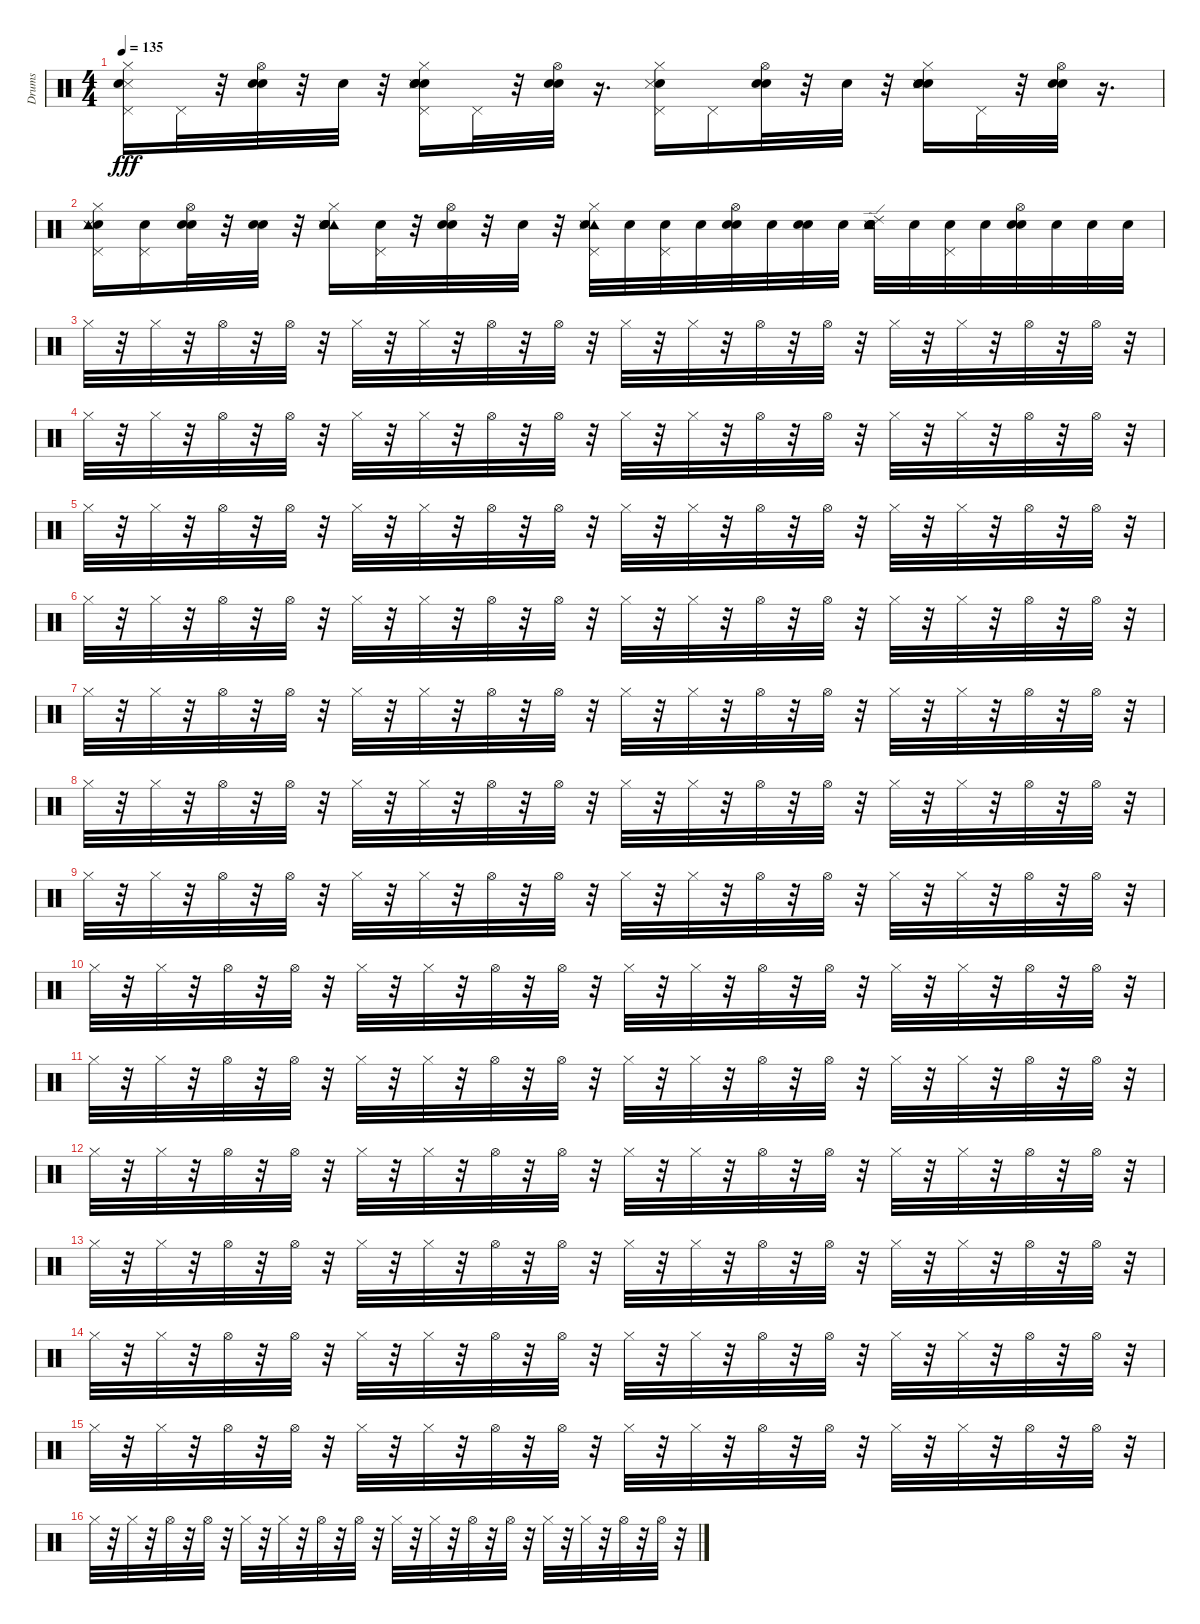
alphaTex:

\track ("Drums" "Drums") {instrument percussion}
\staff {score}
\articulation defaults
\ts (4 4)
\tempo 135
\clef neutral
\ks c
("Metronome (hit)" "Pedal Hi-Hat (hit)" "Hi-Hat (closed)" "Snare (hit) 2").16{dy fff} "Pedal Hi-Hat (hit)".32 r.32 ("Hi-Hat (open)" "Snare (hit)" "Snare (hit) 2").32 r.32 "Snare (hit)".32 r.32 ("Electric Snare (hit)" "Snare (hit) 2" "Metronome (hit)" "Hand Clap (hit)" "Hi-Hat (closed)" "Pedal Hi-Hat (hit)").16 "Pedal Hi-Hat (hit)".32 r.32 ("Snare (hit) 2" "Snare (hit)" "Hi-Hat (open)").32 r.16{d} ("Hi-Hat (closed)" "Pedal Hi-Hat (hit)" "Snare (hit) 2" "Metronome (hit)").16 "Pedal Hi-Hat (hit)".16 ("Hi-Hat (open)" "Snare (hit) 2" "Snare (hit)").32 r.32 "Snare (hit)".32 r.32 ("Snare (hit)" "Electric Snare (hit)" "Hand Clap (hit)" "Hi-Hat (closed)" "Snare (hit) 2" "Metronome (hit)").16 "Pedal Hi-Hat (hit)".32 r.32 ("Snare (hit)" "Hi-Hat (open)" "Snare (hit) 2").32 r.16{d} |
("Snare (hit) 2" "Hi-Hat (closed)" "Tambourine (hit)" "Pedal Hi-Hat (hit)" "Metronome (hit)").16 ("Pedal Hi-Hat (hit)" "Snare (hit) 2").16 ("Hi-Hat (open)" "Snare (hit)" "Snare (hit) 2").32 r.32 ("Snare (hit)" "Snare (hit) 2").32 r.32 ("Tambourine (hit)" "Snare (hit)" "Snare (hit) 2" "Electric Snare (hit)" "Metronome (hit)" "Hi-Hat (closed)").16 ("Snare (hit) 2" "Pedal Hi-Hat (hit)").32 r.32 ("Snare (hit)" "Snare (hit) 2" "Hi-Hat (open)").32 r.32 "Snare (hit) 2".32 r.32 ("Tambourine (hit)" "Metronome (hit)" "Snare (hit) 2" "Hi-Hat (closed)" "Pedal Hi-Hat (hit)").32 "Snare (hit) 2".32 ("Pedal Hi-Hat (hit)" "Snare (hit) 2").32 "Snare (hit) 2".32 ("Hi-Hat (open)" "Snare (hit)" "Snare (hit) 2").32 "Snare (hit) 2".32 ("Snare (hit)" "Snare (hit) 2").32 "Snare (hit) 2".32 ("Ride (edge) 2" "Hand Clap (hit)" "Tambourine (hit)" "Metronome (hit)" "Snare (hit) 2" "Electric Snare (hit)").32 "Snare (hit) 2".32 ("Snare (hit) 2" "Pedal Hi-Hat (hit)").32 "Snare (hit) 2".32 ("Snare (hit)" "Snare (hit) 2" "Hi-Hat (open)").32 "Snare (hit) 2".32 "Snare (hit) 2".32 "Snare (hit) 2".32 |
"Hi-Hat (closed)".32{balance 0} r.32 "Hi-Hat (closed)".32{balance 0} r.32 "Hi-Hat (open)".32{balance 1} r.32 "Hi-Hat (open)".32{balance 1} r.32 "Hi-Hat (closed)".32{balance 2} r.32 "Hi-Hat (closed)".32{balance 2} r.32 "Hi-Hat (open)".32{balance 3} r.32 "Hi-Hat (open)".32{balance 3} r.32 "Hi-Hat (closed)".32{balance 4} r.32 "Hi-Hat (closed)".32{balance 4} r.32 "Hi-Hat (open)".32{balance 5} r.32 "Hi-Hat (open)".32{balance 5} r.32 "Hi-Hat (closed)".32{balance 6} r.32 "Hi-Hat (closed)".32{balance 6} r.32 "Hi-Hat (open)".32{balance 7} r.32 "Hi-Hat (open)".32{balance 7} r.32 |
"Hi-Hat (closed)".32{balance 8} r.32 "Hi-Hat (closed)".32{balance 8} r.32 "Hi-Hat (open)".32{balance 9} r.32 "Hi-Hat (open)".32{balance 9} r.32 "Hi-Hat (closed)".32{balance 10} r.32 "Hi-Hat (closed)".32{balance 10} r.32 "Hi-Hat (open)".32{balance 11} r.32 "Hi-Hat (open)".32{balance 11} r.32 "Hi-Hat (closed)".32{balance 12} r.32 "Hi-Hat (closed)".32{balance 12} r.32 "Hi-Hat (open)".32{balance 13} r.32 "Hi-Hat (open)".32{balance 13} r.32 "Hi-Hat (closed)".32{balance 14} r.32 "Hi-Hat (closed)".32{balance 14} r.32 "Hi-Hat (open)".32{balance 15} r.32 "Hi-Hat (open)".32{balance 15} r.32 |
"Hi-Hat (closed)".32{balance 16} r.32 "Hi-Hat (closed)".32{balance 16} r.32 "Hi-Hat (open)".32{balance 15} r.32 "Hi-Hat (open)".32{balance 14} r.32 "Hi-Hat (closed)".32{balance 14} r.32 "Hi-Hat (closed)".32{balance 14} r.32 "Hi-Hat (open)".32{balance 13} r.32 "Hi-Hat (open)".32{balance 13} r.32 "Hi-Hat (closed)".32{balance 12} r.32 "Hi-Hat (closed)".32{balance 12} r.32 "Hi-Hat (open)".32{balance 11} r.32 "Hi-Hat (open)".32{balance 11} r.32 "Hi-Hat (closed)".32{balance 10} r.32 "Hi-Hat (closed)".32{balance 10} r.32 "Hi-Hat (open)".32{balance 9} r.32 "Hi-Hat (open)".32{balance 9} r.32 |
"Hi-Hat (closed)".32{balance 8} r.32 "Hi-Hat (closed)".32{balance 8} r.32 "Hi-Hat (open)".32{balance 7} r.32 "Hi-Hat (open)".32{balance 7} r.32 "Hi-Hat (closed)".32{balance 6} r.32 "Hi-Hat (closed)".32{balance 6} r.32 "Hi-Hat (open)".32{balance 5} r.32 "Hi-Hat (open)".32{balance 5} r.32 "Hi-Hat (closed)".32{balance 4} r.32 "Hi-Hat (closed)".32{balance 4} r.32 "Hi-Hat (open)".32{balance 3} r.32 "Hi-Hat (open)".32{balance 3} r.32 "Hi-Hat (closed)".32{balance 2} r.32 "Hi-Hat (closed)".32{balance 2} r.32 "Hi-Hat (open)".32{balance 1} r.32 "Hi-Hat (open)".32{balance 1} r.32 |
"Hi-Hat (closed)".32{balance 0} r.32 "Hi-Hat (closed)".32{balance 0} r.32 "Hi-Hat (open)".32{balance 1} r.32 "Hi-Hat (open)".32{balance 1} r.32 "Hi-Hat (closed)".32{balance 2} r.32 "Hi-Hat (closed)".32{balance 2} r.32 "Hi-Hat (open)".32{balance 3} r.32 "Hi-Hat (open)".32{balance 3} r.32 "Hi-Hat (closed)".32{balance 4} r.32 "Hi-Hat (closed)".32{balance 4} r.32 "Hi-Hat (open)".32{balance 5} r.32 "Hi-Hat (open)".32{balance 5} r.32 "Hi-Hat (closed)".32{balance 6} r.32 "Hi-Hat (closed)".32{balance 6} r.32 "Hi-Hat (open)".32{balance 7} r.32 "Hi-Hat (open)".32{balance 7} r.32 |
"Hi-Hat (closed)".32{balance 8} r.32 "Hi-Hat (closed)".32{balance 8} r.32 "Hi-Hat (open)".32{balance 9} r.32 "Hi-Hat (open)".32{balance 9} r.32 "Hi-Hat (closed)".32{balance 10} r.32 "Hi-Hat (closed)".32{balance 10} r.32 "Hi-Hat (open)".32{balance 11} r.32 "Hi-Hat (open)".32{balance 11} r.32 "Hi-Hat (closed)".32{balance 12} r.32 "Hi-Hat (closed)".32{balance 12} r.32 "Hi-Hat (open)".32{balance 13} r.32 "Hi-Hat (open)".32{balance 13} r.32 "Hi-Hat (closed)".32{balance 14} r.32 "Hi-Hat (closed)".32{balance 14} r.32 "Hi-Hat (open)".32{balance 15} r.32 "Hi-Hat (open)".32{balance 15} r.32 |
"Hi-Hat (closed)".32{balance 16} r.32 "Hi-Hat (closed)".32{balance 16} r.32 "Hi-Hat (open)".32{balance 15} r.32 "Hi-Hat (open)".32{balance 14} r.32 "Hi-Hat (closed)".32{balance 14} r.32 "Hi-Hat (closed)".32{balance 14} r.32 "Hi-Hat (open)".32{balance 13} r.32 "Hi-Hat (open)".32{balance 13} r.32 "Hi-Hat (closed)".32{balance 12} r.32 "Hi-Hat (closed)".32{balance 12} r.32 "Hi-Hat (open)".32{balance 11} r.32 "Hi-Hat (open)".32{balance 11} r.32 "Hi-Hat (closed)".32{balance 10} r.32 "Hi-Hat (closed)".32{balance 10} r.32 "Hi-Hat (open)".32{balance 9} r.32 "Hi-Hat (open)".32{balance 9} r.32 |
"Hi-Hat (closed)".32{balance 8} r.32 "Hi-Hat (closed)".32{balance 8} r.32 "Hi-Hat (open)".32{balance 7} r.32 "Hi-Hat (open)".32{balance 7} r.32 "Hi-Hat (closed)".32{balance 6} r.32 "Hi-Hat (closed)".32{balance 6} r.32 "Hi-Hat (open)".32{balance 5} r.32 "Hi-Hat (open)".32{balance 5} r.32 "Hi-Hat (closed)".32{balance 4} r.32 "Hi-Hat (closed)".32{balance 4} r.32 "Hi-Hat (open)".32{balance 3} r.32 "Hi-Hat (open)".32{balance 3} r.32 "Hi-Hat (closed)".32{balance 2} r.32 "Hi-Hat (closed)".32{balance 2} r.32 "Hi-Hat (open)".32{balance 1} r.32 "Hi-Hat (open)".32{balance 1} r.32 |
"Hi-Hat (closed)".32{balance 0} r.32 "Hi-Hat (closed)".32{balance 0} r.32 "Hi-Hat (open)".32{balance 1} r.32 "Hi-Hat (open)".32{balance 1} r.32 "Hi-Hat (closed)".32{balance 2} r.32 "Hi-Hat (closed)".32{balance 2} r.32 "Hi-Hat (open)".32{balance 3} r.32 "Hi-Hat (open)".32{balance 3} r.32 "Hi-Hat (closed)".32{balance 4} r.32 "Hi-Hat (closed)".32{balance 4} r.32 "Hi-Hat (open)".32{balance 5} r.32 "Hi-Hat (open)".32{balance 5} r.32 "Hi-Hat (closed)".32{balance 6} r.32 "Hi-Hat (closed)".32{balance 6} r.32 "Hi-Hat (open)".32{balance 7} r.32 "Hi-Hat (open)".32{balance 7} r.32 |
"Hi-Hat (closed)".32{balance 8} r.32 "Hi-Hat (closed)".32{balance 8} r.32 "Hi-Hat (open)".32{balance 9} r.32 "Hi-Hat (open)".32{balance 9} r.32 "Hi-Hat (closed)".32{balance 10} r.32 "Hi-Hat (closed)".32{balance 10} r.32 "Hi-Hat (open)".32{balance 11} r.32 "Hi-Hat (open)".32{balance 11} r.32 "Hi-Hat (closed)".32{balance 12} r.32 "Hi-Hat (closed)".32{balance 12} r.32 "Hi-Hat (open)".32{balance 13} r.32 "Hi-Hat (open)".32{balance 13} r.32 "Hi-Hat (closed)".32{balance 14} r.32 "Hi-Hat (closed)".32{balance 14} r.32 "Hi-Hat (open)".32{balance 15} r.32 "Hi-Hat (open)".32{balance 15} r.32 |
"Hi-Hat (closed)".32{balance 16} r.32 "Hi-Hat (closed)".32{balance 16} r.32 "Hi-Hat (open)".32{balance 15} r.32 "Hi-Hat (open)".32{balance 14} r.32 "Hi-Hat (closed)".32{balance 14} r.32 "Hi-Hat (closed)".32{balance 14} r.32 "Hi-Hat (open)".32{balance 13} r.32 "Hi-Hat (open)".32{balance 13} r.32 "Hi-Hat (closed)".32{balance 12} r.32 "Hi-Hat (closed)".32{balance 12} r.32 "Hi-Hat (open)".32{balance 11} r.32 "Hi-Hat (open)".32{balance 11} r.32 "Hi-Hat (closed)".32{balance 10} r.32 "Hi-Hat (closed)".32{balance 10} r.32 "Hi-Hat (open)".32{balance 9} r.32 "Hi-Hat (open)".32{balance 9} r.32 |
"Hi-Hat (closed)".32{balance 8} r.32 "Hi-Hat (closed)".32{balance 8} r.32 "Hi-Hat (open)".32{balance 7} r.32 "Hi-Hat (open)".32{balance 7} r.32 "Hi-Hat (closed)".32{balance 6} r.32 "Hi-Hat (closed)".32{balance 6} r.32 "Hi-Hat (open)".32{balance 5} r.32 "Hi-Hat (open)".32{balance 5} r.32 "Hi-Hat (closed)".32{balance 4} r.32 "Hi-Hat (closed)".32{balance 4} r.32 "Hi-Hat (open)".32{balance 3} r.32 "Hi-Hat (open)".32{balance 3} r.32 "Hi-Hat (closed)".32{balance 2} r.32 "Hi-Hat (closed)".32{balance 2} r.32 "Hi-Hat (open)".32{balance 1} r.32 "Hi-Hat (open)".32{balance 1} r.32 |
"Hi-Hat (closed)".32{balance 0} r.32 "Hi-Hat (closed)".32{balance 0} r.32 "Hi-Hat (open)".32{balance 1} r.32 "Hi-Hat (open)".32{balance 1} r.32 "Hi-Hat (closed)".32{balance 2} r.32 "Hi-Hat (closed)".32{balance 2} r.32 "Hi-Hat (open)".32{balance 3} r.32 "Hi-Hat (open)".32{balance 3} r.32 "Hi-Hat (closed)".32{balance 4} r.32 "Hi-Hat (closed)".32{balance 4} r.32 "Hi-Hat (open)".32{balance 5} r.32 "Hi-Hat (open)".32{balance 5} r.32 "Hi-Hat (closed)".32{balance 6} r.32 "Hi-Hat (closed)".32{balance 6} r.32 "Hi-Hat (open)".32{balance 7} r.32 "Hi-Hat (open)".32{balance 7} r.32 |
"Hi-Hat (closed)".32{balance 8} r.32 "Hi-Hat (closed)".32{balance 8} r.32 "Hi-Hat (open)".32{balance 9} r.32 "Hi-Hat (open)".32{balance 9} r.32 "Hi-Hat (closed)".32{balance 10} r.32 "Hi-Hat (closed)".32{balance 10} r.32 "Hi-Hat (open)".32{balance 11} r.32 "Hi-Hat (open)".32{balance 11} r.32 "Hi-Hat (closed)".32{balance 12} r.32 "Hi-Hat (closed)".32{balance 12} r.32 "Hi-Hat (open)".32{balance 13} r.32 "Hi-Hat (open)".32{balance 13} r.32 "Hi-Hat (closed)".32{balance 14} r.32 "Hi-Hat (closed)".32{balance 14} r.32 "Hi-Hat (open)".32{balance 15} r.32 "Hi-Hat (open)".32{balance 15} r.32
